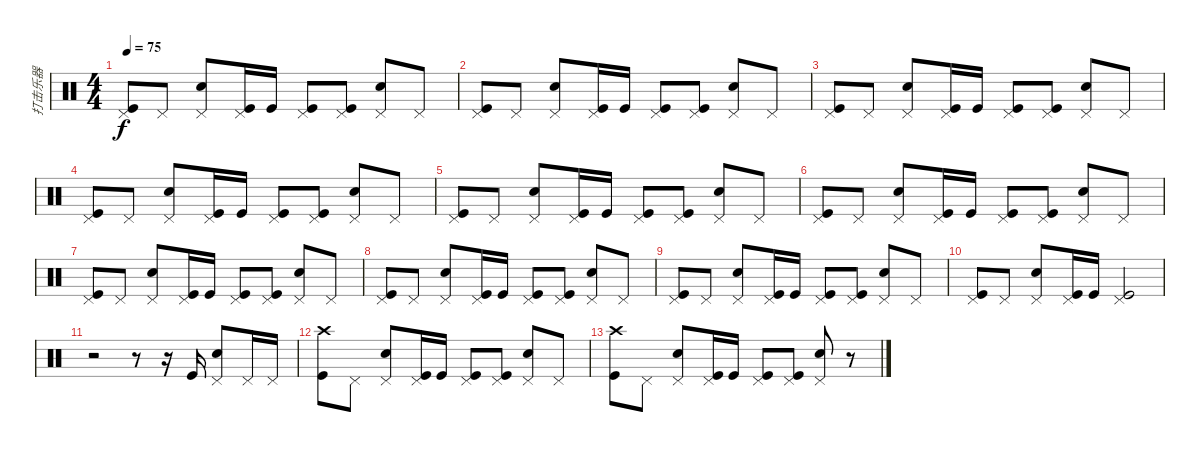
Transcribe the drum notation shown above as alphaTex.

\track ("打击乐器" "打击乐器") {instrument percussion}
\staff {score}
\articulation defaults
\ts (4 4)
\tempo 75
\clef neutral
\ks c
("Pedal Hi-Hat (hit)" "Kick (hit)").8{dy f} "Pedal Hi-Hat (hit)".8 ("Pedal Hi-Hat (hit)" "Electric Snare (hit)").8 ("Pedal Hi-Hat (hit)" "Kick (hit)").16 "Kick (hit)".16 ("Pedal Hi-Hat (hit)" "Kick (hit)").8 ("Pedal Hi-Hat (hit)" "Kick (hit)").8 ("Pedal Hi-Hat (hit)" "Electric Snare (hit)").8 "Pedal Hi-Hat (hit)".8 |
("Pedal Hi-Hat (hit)" "Kick (hit)").8 "Pedal Hi-Hat (hit)".8 ("Pedal Hi-Hat (hit)" "Electric Snare (hit)").8 ("Pedal Hi-Hat (hit)" "Kick (hit)").16 "Kick (hit)".16 ("Pedal Hi-Hat (hit)" "Kick (hit)").8 ("Pedal Hi-Hat (hit)" "Kick (hit)").8 ("Pedal Hi-Hat (hit)" "Electric Snare (hit)").8 "Pedal Hi-Hat (hit)".8 |
("Pedal Hi-Hat (hit)" "Kick (hit)").8 "Pedal Hi-Hat (hit)".8 ("Pedal Hi-Hat (hit)" "Electric Snare (hit)").8 ("Pedal Hi-Hat (hit)" "Kick (hit)").16 "Kick (hit)".16 ("Pedal Hi-Hat (hit)" "Kick (hit)").8 ("Pedal Hi-Hat (hit)" "Kick (hit)").8 ("Pedal Hi-Hat (hit)" "Electric Snare (hit)").8 "Pedal Hi-Hat (hit)".8 |
("Pedal Hi-Hat (hit)" "Kick (hit)").8 "Pedal Hi-Hat (hit)".8 ("Pedal Hi-Hat (hit)" "Electric Snare (hit)").8 ("Pedal Hi-Hat (hit)" "Kick (hit)").16 "Kick (hit)".16 ("Pedal Hi-Hat (hit)" "Kick (hit)").8 ("Pedal Hi-Hat (hit)" "Kick (hit)").8 ("Pedal Hi-Hat (hit)" "Electric Snare (hit)").8 "Pedal Hi-Hat (hit)".8 |
("Pedal Hi-Hat (hit)" "Kick (hit)").8 "Pedal Hi-Hat (hit)".8 ("Pedal Hi-Hat (hit)" "Electric Snare (hit)").8 ("Pedal Hi-Hat (hit)" "Kick (hit)").16 "Kick (hit)".16 ("Pedal Hi-Hat (hit)" "Kick (hit)").8 ("Pedal Hi-Hat (hit)" "Kick (hit)").8 ("Pedal Hi-Hat (hit)" "Electric Snare (hit)").8 "Pedal Hi-Hat (hit)".8 |
("Pedal Hi-Hat (hit)" "Kick (hit)").8 "Pedal Hi-Hat (hit)".8 ("Pedal Hi-Hat (hit)" "Electric Snare (hit)").8 ("Pedal Hi-Hat (hit)" "Kick (hit)").16 "Kick (hit)".16 ("Pedal Hi-Hat (hit)" "Kick (hit)").8 ("Pedal Hi-Hat (hit)" "Kick (hit)").8 ("Pedal Hi-Hat (hit)" "Electric Snare (hit)").8 "Pedal Hi-Hat (hit)".8 |
("Pedal Hi-Hat (hit)" "Kick (hit)").8 "Pedal Hi-Hat (hit)".8 ("Pedal Hi-Hat (hit)" "Electric Snare (hit)").8 ("Pedal Hi-Hat (hit)" "Kick (hit)").16 "Kick (hit)".16 ("Pedal Hi-Hat (hit)" "Kick (hit)").8 ("Pedal Hi-Hat (hit)" "Kick (hit)").8 ("Pedal Hi-Hat (hit)" "Electric Snare (hit)").8 "Pedal Hi-Hat (hit)".8 |
("Pedal Hi-Hat (hit)" "Kick (hit)").8 "Pedal Hi-Hat (hit)".8 ("Pedal Hi-Hat (hit)" "Electric Snare (hit)").8 ("Pedal Hi-Hat (hit)" "Kick (hit)").16 "Kick (hit)".16 ("Pedal Hi-Hat (hit)" "Kick (hit)").8 ("Pedal Hi-Hat (hit)" "Kick (hit)").8 ("Pedal Hi-Hat (hit)" "Electric Snare (hit)").8 "Pedal Hi-Hat (hit)".8 |
("Pedal Hi-Hat (hit)" "Kick (hit)").8 "Pedal Hi-Hat (hit)".8 ("Pedal Hi-Hat (hit)" "Electric Snare (hit)").8 ("Pedal Hi-Hat (hit)" "Kick (hit)").16 "Kick (hit)".16 ("Pedal Hi-Hat (hit)" "Kick (hit)").8 ("Pedal Hi-Hat (hit)" "Kick (hit)").8 ("Pedal Hi-Hat (hit)" "Electric Snare (hit)").8 "Pedal Hi-Hat (hit)".8 |
("Pedal Hi-Hat (hit)" "Kick (hit)").8 "Pedal Hi-Hat (hit)".8 ("Pedal Hi-Hat (hit)" "Electric Snare (hit)").8 ("Pedal Hi-Hat (hit)" "Kick (hit)").16 "Kick (hit)".16 ("Pedal Hi-Hat (hit)" "Kick (hit)").2 |
r.2 r.8 r.16 "Kick (hit)".16 ("Pedal Hi-Hat (hit)" "Electric Snare (hit)").8 "Pedal Hi-Hat (hit)".16 "Pedal Hi-Hat (hit)".16 |
("Crash high (hit)" "Kick (hit)").8 "Pedal Hi-Hat (hit)".8 ("Pedal Hi-Hat (hit)" "Electric Snare (hit)").8 ("Pedal Hi-Hat (hit)" "Kick (hit)").16 "Kick (hit)".16 ("Pedal Hi-Hat (hit)" "Kick (hit)").8 ("Pedal Hi-Hat (hit)" "Kick (hit)").8 ("Pedal Hi-Hat (hit)" "Electric Snare (hit)").8 "Pedal Hi-Hat (hit)".8 |
("Crash high (hit)" "Kick (hit)").8 "Pedal Hi-Hat (hit)".8 ("Pedal Hi-Hat (hit)" "Electric Snare (hit)").8 ("Pedal Hi-Hat (hit)" "Kick (hit)").16 "Kick (hit)".16 ("Pedal Hi-Hat (hit)" "Kick (hit)").8 ("Pedal Hi-Hat (hit)" "Kick (hit)").8 ("Pedal Hi-Hat (hit)" "Electric Snare (hit)").8 r.8
